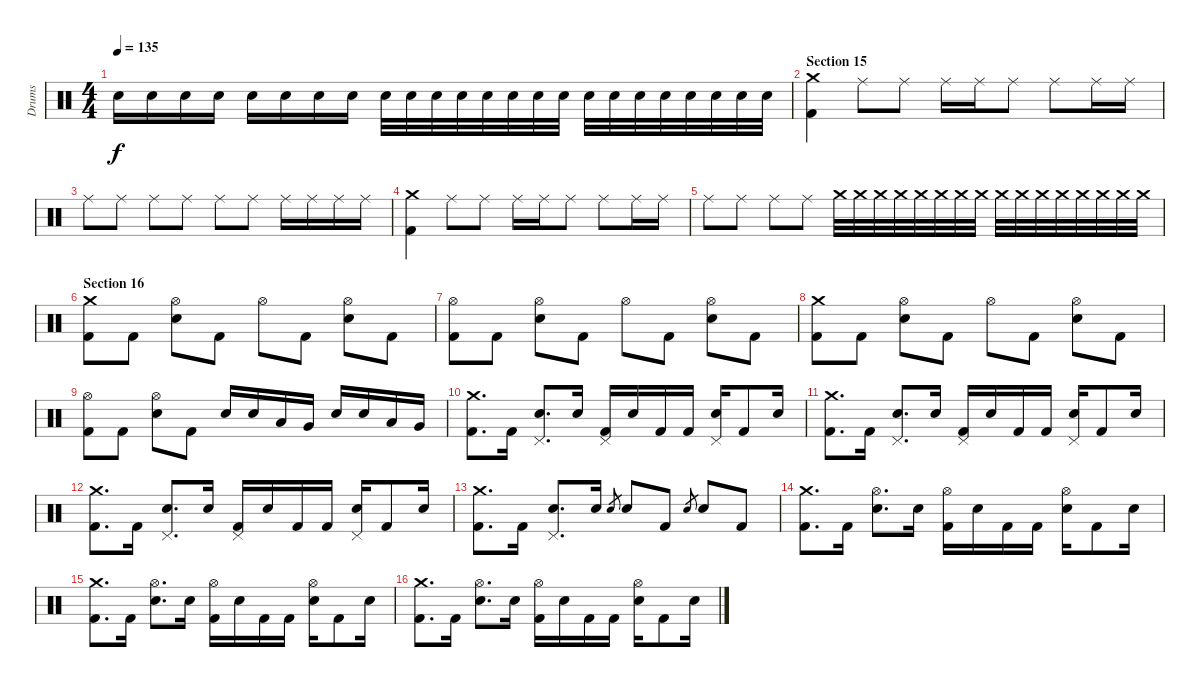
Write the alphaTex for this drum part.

\track ("Drums" "Drums") {instrument percussion}
\staff {score}
\articulation defaults
\ts (4 4)
\tempo 135
\clef neutral
\ks c "Electric Snare (hit)".16{dy f} "Electric Snare (hit)".16 "Electric Snare (hit)".16 "Electric Snare (hit)".16 "Electric Snare (hit)".16 "Electric Snare (hit)".16 "Electric Snare (hit)".16 "Electric Snare (hit)".16 "Electric Snare (hit)".32 "Electric Snare (hit)".32 "Electric Snare (hit)".32 "Electric Snare (hit)".32 "Electric Snare (hit)".32 "Electric Snare (hit)".32 "Electric Snare (hit)".32 "Electric Snare (hit)".32 "Electric Snare (hit)".32 "Electric Snare (hit)".32 "Electric Snare (hit)".32 "Electric Snare (hit)".32 "Electric Snare (hit)".32 "Electric Snare (hit)".32 "Electric Snare (hit)".32 "Electric Snare (hit)".32
|
\section ("" "Section 15")
("Crash medium (hit)" "Kick (hit) 2").4 "Ride (middle)".8 "Ride (middle)".8 "Ride (middle)".16 "Ride (middle)".16 "Ride (middle)".8 "Ride (middle)".8 "Ride (middle)".16 "Ride (middle)".16 |
"Ride (middle)".8 "Ride (middle)".8 "Ride (middle)".8 "Ride (middle)".8 "Ride (middle)".8 "Ride (middle)".8 "Ride (middle)".16 "Ride (middle)".16 "Ride (middle)".16 "Ride (middle)".16 |
("Crash medium (hit)" "Kick (hit) 2").4 "Ride (middle)".8 "Ride (middle)".8 "Ride (middle)".16 "Ride (middle)".16 "Ride (middle)".8 "Ride (middle)".8 "Ride (middle)".16 "Ride (middle)".16 |
"Ride (middle)".8 "Ride (middle)".8 "Ride (middle)".8 "Ride (middle)".8{volume 0} "Crash medium (hit)".32{volume 13} "Crash medium (hit)".32 "Crash medium (hit)".32 "Crash medium (hit)".32 "Crash medium (hit)".32 "Crash medium (hit)".32 "Crash medium (hit)".32 "Crash medium (hit)".32 "Crash medium (hit)".32 "Crash medium (hit)".32 "Crash medium (hit)".32 "Crash medium (hit)".32 "Crash medium (hit)".32 "Crash medium (hit)".32 "Crash medium (hit)".32 "Crash medium (hit)".32 |
\section ("" "Section 16")
("Crash medium (hit)" "Kick (hit) 2").8 "Kick (hit) 2".8 ("Hi-Hat (open)" "Electric Snare (hit)").8 "Kick (hit) 2".8 "Hi-Hat (open)".8 "Kick (hit) 2".8 ("Hi-Hat (open)" "Electric Snare (hit)").8 "Kick (hit) 2".8 |
("Hi-Hat (open)" "Kick (hit) 2").8 "Kick (hit) 2".8 ("Hi-Hat (open)" "Electric Snare (hit)").8 "Kick (hit) 2".8 "Hi-Hat (open)".8 "Kick (hit) 2".8 ("Hi-Hat (open)" "Electric Snare (hit)").8 "Kick (hit) 2".8 |
("Crash medium (hit)" "Kick (hit) 2").8 "Kick (hit) 2".8 ("Hi-Hat (open)" "Electric Snare (hit)").8 "Kick (hit) 2".8 "Hi-Hat (open)".8 "Kick (hit) 2".8 ("Hi-Hat (open)" "Electric Snare (hit)").8 "Kick (hit) 2".8 |
("Hi-Hat (open)" "Kick (hit) 2").8 "Kick (hit) 2".8 ("Hi-Hat (open)" "Electric Snare (hit)").8 "Kick (hit) 2".8 "Electric Snare (hit)".16 "Electric Snare (hit)".16 "Low Tom (hit)".16 "Very Low Tom (hit)".16 "Electric Snare (hit)".16 "Electric Snare (hit)".16 "Low Tom (hit)".16 "Very Low Tom (hit)".16 |
("Crash medium (hit)" "Kick (hit) 2").8{d} "Kick (hit) 2".16 ("Pedal Hi-Hat (hit)" "Electric Snare (hit)").8{d} "Electric Snare (hit)".16 ("Pedal Hi-Hat (hit)" "Kick (hit) 2").16 "Electric Snare (hit)".16 "Kick (hit) 2".16 "Kick (hit) 2".16 ("Pedal Hi-Hat (hit)" "Electric Snare (hit)").16 "Kick (hit) 2".8 "Electric Snare (hit)".16 |
("Crash medium (hit)" "Kick (hit) 2").8{d} "Kick (hit) 2".16 ("Pedal Hi-Hat (hit)" "Electric Snare (hit)").8{d} "Electric Snare (hit)".16 ("Pedal Hi-Hat (hit)" "Kick (hit) 2").16 "Electric Snare (hit)".16 "Kick (hit) 2".16 "Kick (hit) 2".16 ("Pedal Hi-Hat (hit)" "Electric Snare (hit)").16 "Kick (hit) 2".8 "Electric Snare (hit)".16 |
("Crash medium (hit)" "Kick (hit) 2").8{d} "Kick (hit) 2".16 ("Pedal Hi-Hat (hit)" "Electric Snare (hit)").8{d} "Electric Snare (hit)".16 ("Pedal Hi-Hat (hit)" "Kick (hit) 2").16 "Electric Snare (hit)".16 "Kick (hit) 2".16 "Kick (hit) 2".16 ("Pedal Hi-Hat (hit)" "Electric Snare (hit)").16 "Kick (hit) 2".8 "Electric Snare (hit)".16 |
("Crash medium (hit)" "Kick (hit) 2").8{d} "Kick (hit) 2".16 ("Pedal Hi-Hat (hit)" "Electric Snare (hit)").8{d} "Electric Snare (hit)".16 "Electric Snare (hit)".8{gr} "Electric Snare (hit)".8 "Kick (hit) 2".8 "Electric Snare (hit)".8{gr} "Electric Snare (hit)".8 "Kick (hit) 2".8 |
("Crash medium (hit)" "Kick (hit) 2").8{d} "Kick (hit) 2".16 ("Hi-Hat (open)" "Electric Snare (hit)").8{d} "Electric Snare (hit)".16 ("Hi-Hat (open)" "Kick (hit) 2").16 "Electric Snare (hit)".16 "Kick (hit) 2".16 "Kick (hit) 2".16 ("Hi-Hat (open)" "Electric Snare (hit)").16 "Kick (hit) 2".8 "Electric Snare (hit)".16 |
("Crash medium (hit)" "Kick (hit) 2").8{d} "Kick (hit) 2".16 ("Hi-Hat (open)" "Electric Snare (hit)").8{d} "Electric Snare (hit)".16 ("Hi-Hat (open)" "Kick (hit) 2").16 "Electric Snare (hit)".16 "Kick (hit) 2".16 "Kick (hit) 2".16 ("Hi-Hat (open)" "Electric Snare (hit)").16 "Kick (hit) 2".8 "Electric Snare (hit)".16 |
("Crash medium (hit)" "Kick (hit) 2").8{d} "Kick (hit) 2".16 ("Hi-Hat (open)" "Electric Snare (hit)").8{d} "Electric Snare (hit)".16 ("Hi-Hat (open)" "Kick (hit) 2").16 "Electric Snare (hit)".16 "Kick (hit) 2".16 "Kick (hit) 2".16 ("Hi-Hat (open)" "Electric Snare (hit)").16 "Kick (hit) 2".8 "Electric Snare (hit)".16
